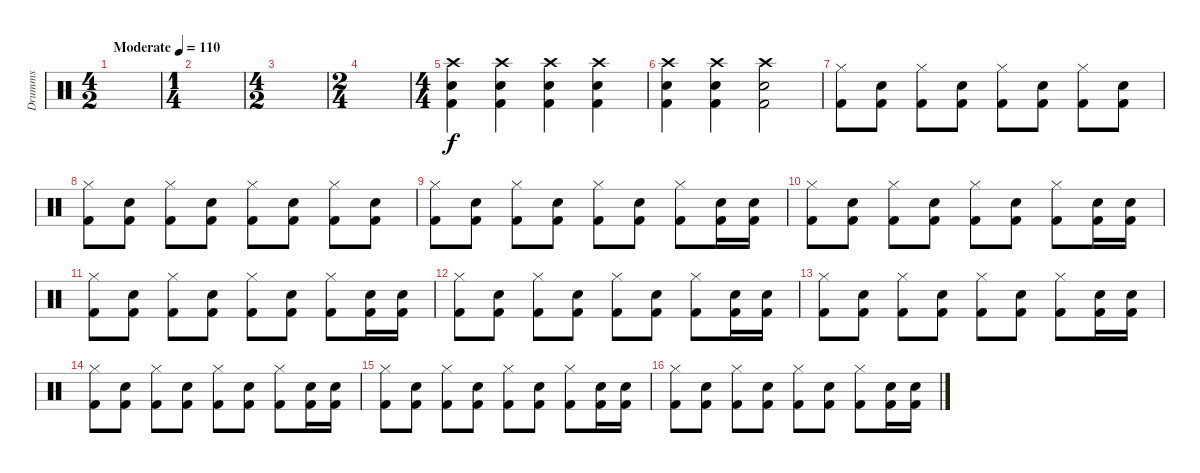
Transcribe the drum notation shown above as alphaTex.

\track ("Drumms" "Drumms") {instrument percussion}
\staff {score}
\articulation defaults
\ts (4 2)
\tempo (110 "Moderate")
\clef neutral
\ks c
|
\ts (1 4)
|
\ts (4 2)
|
\ts (2 4)
|
\ts (4 4)
("Kick (hit) 2" "Snare (hit) 2" "Crash high (hit)").4 ("Kick (hit) 2" "Snare (hit) 2" "Crash high (hit)").4 ("Kick (hit) 2" "Snare (hit) 2" "Crash high (hit)").4 ("Kick (hit) 2" "Snare (hit) 2" "Crash high (hit)").4 |
("Kick (hit) 2" "Snare (hit) 2" "Crash high (hit)").4 ("Kick (hit) 2" "Snare (hit) 2" "Crash high (hit)").4 ("Kick (hit) 2" "Snare (hit) 2" "Crash high (hit)").2 |
("Kick (hit) 2" "Hi-Hat (closed)").8 ("Kick (hit) 2" "Snare (hit) 2").8 ("Kick (hit) 2" "Hi-Hat (closed)").8 ("Kick (hit) 2" "Snare (hit) 2").8 ("Kick (hit) 2" "Hi-Hat (closed)").8 ("Kick (hit) 2" "Snare (hit) 2").8 ("Kick (hit) 2" "Hi-Hat (closed)").8 ("Kick (hit) 2" "Snare (hit) 2").8 |
("Kick (hit) 2" "Hi-Hat (closed)").8 ("Kick (hit) 2" "Snare (hit) 2").8 ("Kick (hit) 2" "Hi-Hat (closed)").8 ("Kick (hit) 2" "Snare (hit) 2").8 ("Kick (hit) 2" "Hi-Hat (closed)").8 ("Kick (hit) 2" "Snare (hit) 2").8 ("Kick (hit) 2" "Hi-Hat (closed)").8 ("Kick (hit) 2" "Snare (hit) 2").8 |
("Kick (hit) 2" "Hi-Hat (closed)").8 ("Kick (hit) 2" "Snare (hit) 2").8 ("Kick (hit) 2" "Hi-Hat (closed)").8 ("Kick (hit) 2" "Snare (hit) 2").8 ("Kick (hit) 2" "Hi-Hat (closed)").8 ("Kick (hit) 2" "Snare (hit) 2").8 ("Kick (hit) 2" "Hi-Hat (closed)").8 ("Kick (hit) 2" "Snare (hit) 2").16 ("Kick (hit) 2" "Snare (hit) 2").16 |
("Kick (hit) 2" "Hi-Hat (closed)").8 ("Kick (hit) 2" "Snare (hit) 2").8 ("Kick (hit) 2" "Hi-Hat (closed)").8 ("Kick (hit) 2" "Snare (hit) 2").8 ("Kick (hit) 2" "Hi-Hat (closed)").8 ("Kick (hit) 2" "Snare (hit) 2").8 ("Kick (hit) 2" "Hi-Hat (closed)").8 ("Kick (hit) 2" "Snare (hit) 2").16 ("Kick (hit) 2" "Snare (hit) 2").16 |
("Kick (hit) 2" "Hi-Hat (closed)").8 ("Kick (hit) 2" "Snare (hit) 2").8 ("Kick (hit) 2" "Hi-Hat (closed)").8 ("Kick (hit) 2" "Snare (hit) 2").8 ("Kick (hit) 2" "Hi-Hat (closed)").8 ("Kick (hit) 2" "Snare (hit) 2").8 ("Kick (hit) 2" "Hi-Hat (closed)").8 ("Kick (hit) 2" "Snare (hit) 2").16 ("Kick (hit) 2" "Snare (hit) 2").16 |
("Kick (hit) 2" "Hi-Hat (closed)").8 ("Kick (hit) 2" "Snare (hit) 2").8 ("Kick (hit) 2" "Hi-Hat (closed)").8 ("Kick (hit) 2" "Snare (hit) 2").8 ("Kick (hit) 2" "Hi-Hat (closed)").8 ("Kick (hit) 2" "Snare (hit) 2").8 ("Kick (hit) 2" "Hi-Hat (closed)").8 ("Kick (hit) 2" "Snare (hit) 2").16 ("Kick (hit) 2" "Snare (hit) 2").16 |
("Kick (hit) 2" "Hi-Hat (closed)").8 ("Kick (hit) 2" "Snare (hit) 2").8 ("Kick (hit) 2" "Hi-Hat (closed)").8 ("Kick (hit) 2" "Snare (hit) 2").8 ("Kick (hit) 2" "Hi-Hat (closed)").8 ("Kick (hit) 2" "Snare (hit) 2").8 ("Kick (hit) 2" "Hi-Hat (closed)").8 ("Kick (hit) 2" "Snare (hit) 2").16 ("Kick (hit) 2" "Snare (hit) 2").16 |
("Kick (hit) 2" "Hi-Hat (closed)").8 ("Kick (hit) 2" "Snare (hit) 2").8 ("Kick (hit) 2" "Hi-Hat (closed)").8 ("Kick (hit) 2" "Snare (hit) 2").8 ("Kick (hit) 2" "Hi-Hat (closed)").8 ("Kick (hit) 2" "Snare (hit) 2").8 ("Kick (hit) 2" "Hi-Hat (closed)").8 ("Kick (hit) 2" "Snare (hit) 2").16 ("Kick (hit) 2" "Snare (hit) 2").16 |
("Kick (hit) 2" "Hi-Hat (closed)").8 ("Kick (hit) 2" "Snare (hit) 2").8 ("Kick (hit) 2" "Hi-Hat (closed)").8 ("Kick (hit) 2" "Snare (hit) 2").8 ("Kick (hit) 2" "Hi-Hat (closed)").8 ("Kick (hit) 2" "Snare (hit) 2").8 ("Kick (hit) 2" "Hi-Hat (closed)").8 ("Kick (hit) 2" "Snare (hit) 2").16 ("Kick (hit) 2" "Snare (hit) 2").16 |
("Kick (hit) 2" "Hi-Hat (closed)").8 ("Kick (hit) 2" "Snare (hit) 2").8 ("Kick (hit) 2" "Hi-Hat (closed)").8 ("Kick (hit) 2" "Snare (hit) 2").8 ("Kick (hit) 2" "Hi-Hat (closed)").8 ("Kick (hit) 2" "Snare (hit) 2").8 ("Kick (hit) 2" "Hi-Hat (closed)").8 ("Kick (hit) 2" "Snare (hit) 2").16 ("Kick (hit) 2" "Snare (hit) 2").16
